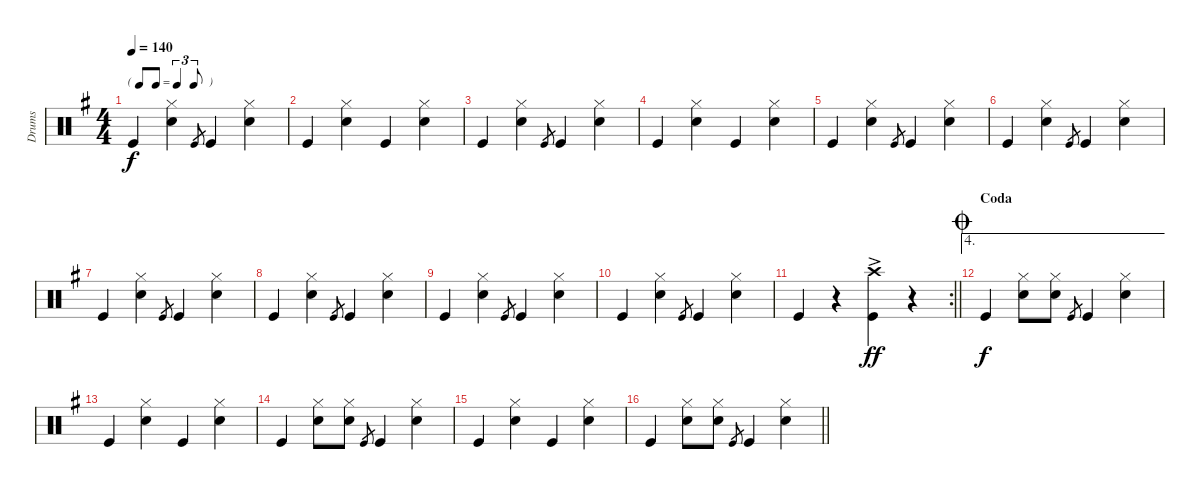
\track ("Drums" "Drums") {instrument percussion}
\staff {score}
\articulation defaults
\ts (4 4)
\tf triplet8th
\tempo 140
\clef neutral
\ks g "Kick (hit)".4{dy f}
("Hi-Hat (closed)" "Snare (hit) 2").4 "Kick (hit)".8{gr} "Kick (hit)".4 ("Hi-Hat (closed)" "Snare (hit) 2").4 |
"Kick (hit)".4 ("Hi-Hat (closed)" "Snare (hit) 2").4 "Kick (hit)".4 ("Hi-Hat (closed)" "Snare (hit) 2").4 |
"Kick (hit)".4 ("Hi-Hat (closed)" "Snare (hit) 2").4 "Kick (hit)".8{gr} "Kick (hit)".4 ("Hi-Hat (closed)" "Snare (hit) 2").4 |
"Kick (hit)".4 ("Hi-Hat (closed)" "Snare (hit) 2").4 "Kick (hit)".4 ("Hi-Hat (closed)" "Snare (hit) 2").4 |
"Kick (hit)".4 ("Hi-Hat (closed)" "Snare (hit) 2").4 "Kick (hit)".8{gr} "Kick (hit)".4 ("Hi-Hat (closed)" "Snare (hit) 2").4 |
"Kick (hit)".4 ("Hi-Hat (closed)" "Snare (hit) 2").4 "Kick (hit)".8{gr} "Kick (hit)".4 ("Hi-Hat (closed)" "Snare (hit) 2").4 |
"Kick (hit)".4 ("Hi-Hat (closed)" "Snare (hit) 2").4 "Kick (hit)".8{gr} "Kick (hit)".4 ("Hi-Hat (closed)" "Snare (hit) 2").4 |
"Kick (hit)".4 ("Hi-Hat (closed)" "Snare (hit) 2").4 "Kick (hit)".8{gr} "Kick (hit)".4 ("Hi-Hat (closed)" "Snare (hit) 2").4 |
"Kick (hit)".4 ("Hi-Hat (closed)" "Snare (hit) 2").4 "Kick (hit)".8{gr} "Kick (hit)".4 ("Hi-Hat (closed)" "Snare (hit) 2").4 |
"Kick (hit)".4 ("Hi-Hat (closed)" "Snare (hit) 2").4 "Kick (hit)".8{gr} "Kick (hit)".4 ("Hi-Hat (closed)" "Snare (hit) 2").4 |
\rc 2
\barLineRight lightlight "Kick (hit)".4
r.4 ("Crash high (hit)"{ac} "Kick (hit)"{ac}).4{dy ff} r.4 |
\ae 4
\section ("" "Coda")
\jump coda "Kick (hit)".4{dy f}
("Hi-Hat (closed)" "Snare (hit) 2").8 ("Hi-Hat (closed)" "Snare (hit) 2").8 "Kick (hit)".8{gr} "Kick (hit)".4 ("Hi-Hat (closed)" "Snare (hit) 2").4 |
"Kick (hit)".4 ("Hi-Hat (closed)" "Snare (hit) 2").4 "Kick (hit)".4 ("Hi-Hat (closed)" "Snare (hit) 2").4 |
"Kick (hit)".4 ("Hi-Hat (closed)" "Snare (hit) 2").8 ("Hi-Hat (closed)" "Snare (hit) 2").8 "Kick (hit)".8{gr} "Kick (hit)".4 ("Hi-Hat (closed)" "Snare (hit) 2").4 |
"Kick (hit)".4 ("Hi-Hat (closed)" "Snare (hit) 2").4 "Kick (hit)".4 ("Hi-Hat (closed)" "Snare (hit) 2").4 |
\barLineRight lightlight "Kick (hit)".4
("Hi-Hat (closed)" "Snare (hit) 2").8 ("Hi-Hat (closed)" "Snare (hit) 2").8 "Kick (hit)".8{gr} "Kick (hit)".4 ("Hi-Hat (closed)" "Snare (hit) 2").4
